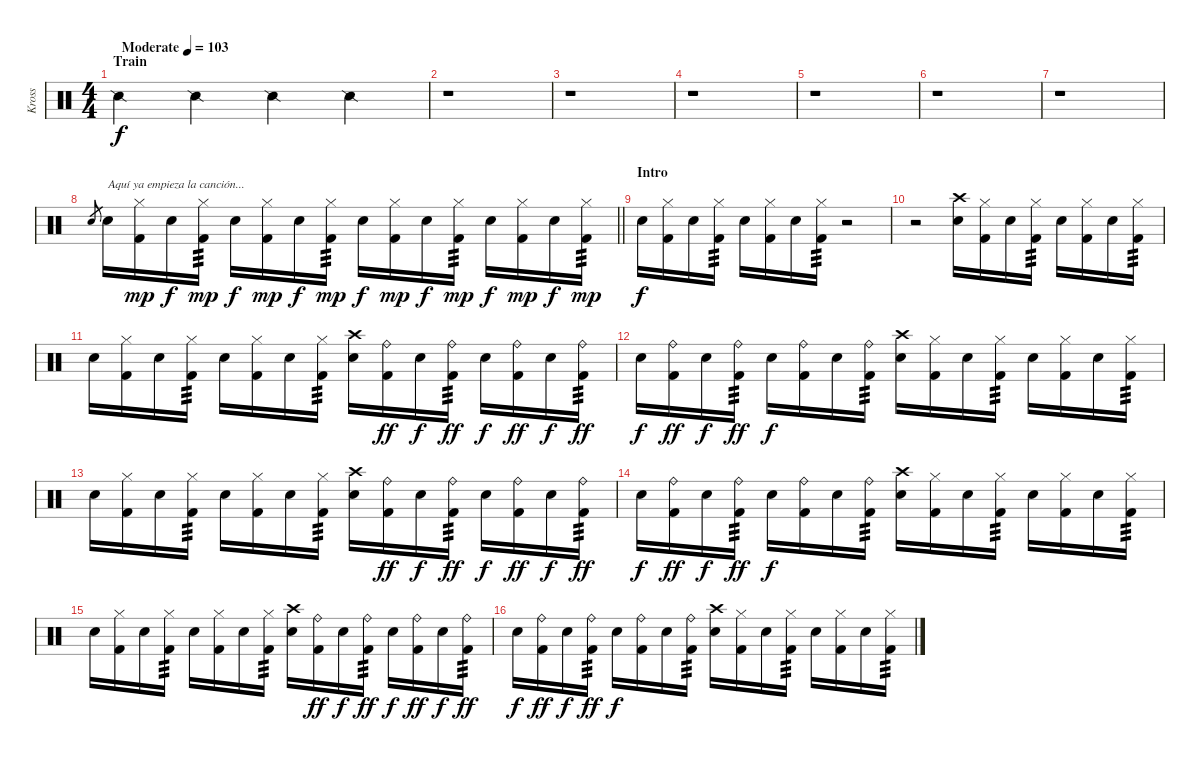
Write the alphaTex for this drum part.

\track ("Kross" "Kross") {instrument percussion}
\staff {score}
\articulation defaults
\ts (4 4)
\section ("" "Train")
\tempo (103 "Moderate")
\clef neutral
\ks c "Snare (side stick) 2".4{dy f} "Snare (side stick) 2".4 "Snare (side stick) 2".4 "Snare (side stick) 2".4
|
r.1 |
r.1 |
r.1 |
r.1 |
r.1 |
r.1 |
\barLineRight lightlight "Electric Snare (hit)"{h}.8{gr} "Electric Snare (hit)".16{txt "Aquí ya empieza la canción..."}
("Hi-Hat (closed)" "Kick (hit) 2").16{dy mp} "Electric Snare (hit)".16{dy f} ("Hi-Hat (closed)" "Kick (hit) 2").16{tp 3 dy mp} "Electric Snare (hit)".16{dy f} ("Hi-Hat (closed)" "Kick (hit) 2").16{dy mp} "Electric Snare (hit)".16{dy f} ("Hi-Hat (closed)" "Kick (hit) 2").16{tp 3 dy mp} "Electric Snare (hit)".16{dy f} ("Hi-Hat (closed)" "Kick (hit) 2").16{dy mp} "Electric Snare (hit)".16{dy f} ("Hi-Hat (closed)" "Kick (hit) 2").16{tp 3 dy mp} "Electric Snare (hit)".16{dy f} ("Hi-Hat (closed)" "Kick (hit) 2").16{dy mp} "Electric Snare (hit)".16{dy f} ("Hi-Hat (closed)" "Kick (hit) 2").16{tp 3 dy mp} |
\section ("" "Intro")
"Electric Snare (hit)".16{dy f} ("Hi-Hat (closed)" "Kick (hit) 2").16 "Electric Snare (hit)".16 ("Hi-Hat (closed)" "Kick (hit) 2").16{tp 3} "Electric Snare (hit)".16 ("Hi-Hat (closed)" "Kick (hit) 2").16 "Electric Snare (hit)".16 ("Hi-Hat (closed)" "Kick (hit) 2").16{tp 3} r.2 |
r.2 ("Crash high (hit)" "Electric Snare (hit)").16 ("Hi-Hat (closed)" "Kick (hit) 2").16 "Electric Snare (hit)".16 ("Hi-Hat (closed)" "Kick (hit) 2").16{tp 3} "Electric Snare (hit)".16 ("Hi-Hat (closed)" "Kick (hit) 2").16 "Electric Snare (hit)".16 ("Hi-Hat (closed)" "Kick (hit) 2").16{tp 3} |
"Electric Snare (hit)".16 ("Hi-Hat (closed)" "Kick (hit) 2").16 "Electric Snare (hit)".16 ("Hi-Hat (closed)" "Kick (hit) 2").16{tp 3} "Electric Snare (hit)".16 ("Hi-Hat (closed)" "Kick (hit) 2").16 "Electric Snare (hit)".16 ("Hi-Hat (closed)" "Kick (hit) 2").16{tp 3} ("Crash high (hit)" "Electric Snare (hit)").16 ("Ride (bell)" "Kick (hit) 2").16{dy ff} "Electric Snare (hit)".16{dy f} ("Ride (bell)" "Kick (hit) 2").16{tp 3 dy ff} "Electric Snare (hit)".16{dy f} ("Ride (bell)" "Kick (hit) 2").16{dy ff} "Electric Snare (hit)".16{dy f} ("Ride (bell)" "Kick (hit) 2").16{tp 3 dy ff} |
"Electric Snare (hit)".16{dy f} ("Ride (bell)" "Kick (hit) 2").16{dy ff} "Electric Snare (hit)".16{dy f} ("Ride (bell)" "Kick (hit) 2").16{tp 3 dy ff} "Electric Snare (hit)".16{dy f} ("Ride (bell)" "Kick (hit) 2").16 "Electric Snare (hit)".16 ("Ride (bell)" "Kick (hit) 2").16{tp 3} ("Crash high (hit)" "Electric Snare (hit)").16 ("Hi-Hat (closed)" "Kick (hit) 2").16 "Electric Snare (hit)".16 ("Hi-Hat (closed)" "Kick (hit) 2").16{tp 3} "Electric Snare (hit)".16 ("Hi-Hat (closed)" "Kick (hit) 2").16 "Electric Snare (hit)".16 ("Hi-Hat (closed)" "Kick (hit) 2").16{tp 3} |
"Electric Snare (hit)".16 ("Hi-Hat (closed)" "Kick (hit) 2").16 "Electric Snare (hit)".16 ("Hi-Hat (closed)" "Kick (hit) 2").16{tp 3} "Electric Snare (hit)".16 ("Hi-Hat (closed)" "Kick (hit) 2").16 "Electric Snare (hit)".16 ("Hi-Hat (closed)" "Kick (hit) 2").16{tp 3} ("Crash high (hit)" "Electric Snare (hit)").16 ("Ride (bell)" "Kick (hit) 2").16{dy ff} "Electric Snare (hit)".16{dy f} ("Ride (bell)" "Kick (hit) 2").16{tp 3 dy ff} "Electric Snare (hit)".16{dy f} ("Ride (bell)" "Kick (hit) 2").16{dy ff} "Electric Snare (hit)".16{dy f} ("Ride (bell)" "Kick (hit) 2").16{tp 3 dy ff} |
"Electric Snare (hit)".16{dy f} ("Ride (bell)" "Kick (hit) 2").16{dy ff} "Electric Snare (hit)".16{dy f} ("Ride (bell)" "Kick (hit) 2").16{tp 3 dy ff} "Electric Snare (hit)".16{dy f} ("Ride (bell)" "Kick (hit) 2").16 "Electric Snare (hit)".16 ("Ride (bell)" "Kick (hit) 2").16{tp 3} ("Crash high (hit)" "Electric Snare (hit)").16 ("Hi-Hat (closed)" "Kick (hit) 2").16 "Electric Snare (hit)".16 ("Hi-Hat (closed)" "Kick (hit) 2").16{tp 3} "Electric Snare (hit)".16 ("Hi-Hat (closed)" "Kick (hit) 2").16 "Electric Snare (hit)".16 ("Hi-Hat (closed)" "Kick (hit) 2").16{tp 3} |
"Electric Snare (hit)".16 ("Hi-Hat (closed)" "Kick (hit) 2").16 "Electric Snare (hit)".16 ("Hi-Hat (closed)" "Kick (hit) 2").16{tp 3} "Electric Snare (hit)".16 ("Hi-Hat (closed)" "Kick (hit) 2").16 "Electric Snare (hit)".16 ("Hi-Hat (closed)" "Kick (hit) 2").16{tp 3} ("Crash high (hit)" "Electric Snare (hit)").16 ("Ride (bell)" "Kick (hit) 2").16{dy ff} "Electric Snare (hit)".16{dy f} ("Ride (bell)" "Kick (hit) 2").16{tp 3 dy ff} "Electric Snare (hit)".16{dy f} ("Ride (bell)" "Kick (hit) 2").16{dy ff} "Electric Snare (hit)".16{dy f} ("Ride (bell)" "Kick (hit) 2").16{tp 3 dy ff} |
"Electric Snare (hit)".16{dy f} ("Ride (bell)" "Kick (hit) 2").16{dy ff} "Electric Snare (hit)".16{dy f} ("Ride (bell)" "Kick (hit) 2").16{tp 3 dy ff} "Electric Snare (hit)".16{dy f} ("Ride (bell)" "Kick (hit) 2").16 "Electric Snare (hit)".16 ("Ride (bell)" "Kick (hit) 2").16{tp 3} ("Crash high (hit)" "Electric Snare (hit)").16 ("Hi-Hat (closed)" "Kick (hit) 2").16 "Electric Snare (hit)".16 ("Hi-Hat (closed)" "Kick (hit) 2").16{tp 3} "Electric Snare (hit)".16 ("Hi-Hat (closed)" "Kick (hit) 2").16 "Electric Snare (hit)".16 ("Hi-Hat (closed)" "Kick (hit) 2").16{tp 3}
